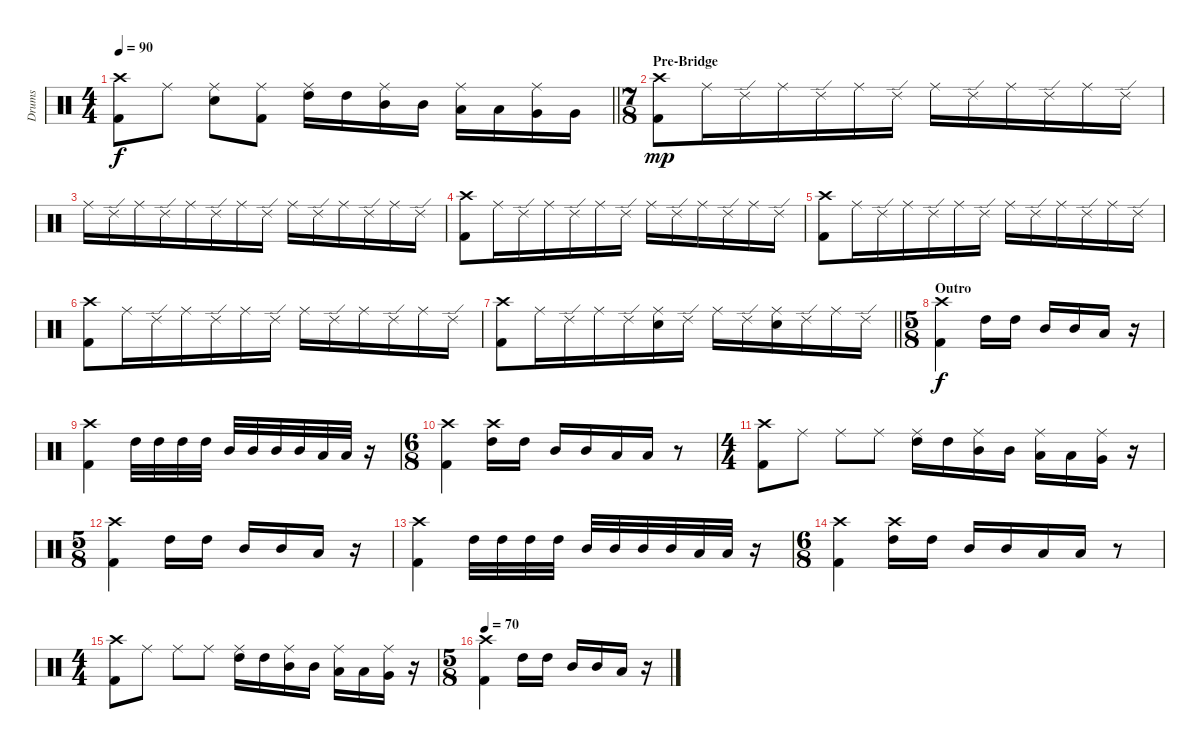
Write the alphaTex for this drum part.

\track ("Drums" "Drums") {instrument percussion}
\staff {score}
\articulation defaults
\ts (4 4)
\tempo 90
\clef neutral
\barLineRight lightlight
\ks c
("Crash high (hit)" "Kick (hit) 2").8{dy f} "Ride (middle)".8 ("Ride (middle)" "Electric Snare (hit)").8 ("Ride (middle)" "Kick (hit) 2").8 ("Ride (middle)" "High Tom (hit)").16 "High Tom (hit)".16 ("Ride (middle)" "Mid Tom (hit)").16 "Mid Tom (hit)".16 ("Ride (middle)" "Low Tom (hit)").16 "Low Tom (hit)".16 ("Ride (middle)" "Very Low Tom (hit)").16 "Very Low Tom (hit)".16 |
\ts (7 8)
\section ("" "Pre-Bridge")
("Crash high (hit)" "Kick (hit) 2").8{dy mp} "Ride (middle)".16 "Ride (edge) 2".16 "Ride (middle)".16 "Ride (edge) 2".16 "Ride (middle)".16 "Ride (edge) 2".16 "Ride (middle)".16 "Ride (edge) 2".16 "Ride (middle)".16 "Ride (edge) 2".16 "Ride (middle)".16 "Ride (edge) 2".16 |
"Ride (middle)".16 "Ride (edge) 2".16 "Ride (middle)".16 "Ride (edge) 2".16 "Ride (middle)".16 "Ride (edge) 2".16 "Ride (middle)".16 "Ride (edge) 2".16 "Ride (middle)".16 "Ride (edge) 2".16 "Ride (middle)".16 "Ride (edge) 2".16 "Ride (middle)".16 "Ride (edge) 2".16 |
("Crash high (hit)" "Kick (hit) 2").8 "Ride (middle)".16 "Ride (edge) 2".16 "Ride (middle)".16 "Ride (edge) 2".16 "Ride (middle)".16 "Ride (edge) 2".16 "Ride (middle)".16 "Ride (edge) 2".16 "Ride (middle)".16 "Ride (edge) 2".16 "Ride (middle)".16 "Ride (edge) 2".16 |
("Crash high (hit)" "Kick (hit) 2").8 "Ride (middle)".16 "Ride (edge) 2".16 "Ride (middle)".16 "Ride (edge) 2".16 "Ride (middle)".16 "Ride (edge) 2".16 "Ride (middle)".16 "Ride (edge) 2".16 "Ride (middle)".16 "Ride (edge) 2".16 "Ride (middle)".16 "Ride (edge) 2".16 |
("Crash high (hit)" "Kick (hit) 2").8 "Ride (middle)".16 "Ride (edge) 2".16 "Ride (middle)".16 "Ride (edge) 2".16 "Ride (middle)".16 "Ride (edge) 2".16 "Ride (middle)".16 "Ride (edge) 2".16 "Ride (middle)".16 "Ride (edge) 2".16 "Ride (middle)".16 "Ride (edge) 2".16 |
\barLineRight lightlight
("Crash high (hit)" "Kick (hit) 2").8 "Ride (middle)".16 "Ride (edge) 2".16 "Ride (middle)".16 "Ride (edge) 2".16 ("Ride (middle)" "Electric Snare (hit)").16 "Ride (edge) 2".16 "Ride (middle)".16 "Ride (edge) 2".16 ("Ride (middle)" "Electric Snare (hit)").16 "Ride (edge) 2".16 "Ride (middle)".16 "Ride (edge) 2".16 |
\ts (5 8)
\section ("" "Outro")
("Crash high (hit)" "Kick (hit) 2").4{dy f} "High Tom (hit)".16 "High Tom (hit)".16 "Mid Tom (hit)".16 "Mid Tom (hit)".16 "Low Tom (hit)".16 r.16 |
("Crash high (hit)" "Kick (hit) 2").4 "High Tom (hit)".32 "High Tom (hit)".32 "High Tom (hit)".32 "High Tom (hit)".32 "Mid Tom (hit)".32 "Mid Tom (hit)".32 "Mid Tom (hit)".32 "Mid Tom (hit)".32 "Low Tom (hit)".32 "Low Tom (hit)".32 r.16 |
\ts (6 8)
("Crash high (hit)" "Kick (hit) 2").4 ("Crash high (hit)" "High Tom (hit)").16 "High Tom (hit)".16 "Mid Tom (hit)".16 "Mid Tom (hit)".16 "Low Tom (hit)".16 "Low Tom (hit)".16 r.8 |
\ts (4 4)
("Crash high (hit)" "Kick (hit) 2").8 "Ride (middle)".8 "Ride (middle)".8 "Ride (middle)".8 ("Ride (middle)" "High Tom (hit)").16 "High Tom (hit)".16 ("Ride (middle)" "Mid Tom (hit)").16 "Mid Tom (hit)".16 ("Ride (middle)" "Low Tom (hit)").16 "Low Tom (hit)".16 ("Ride (middle)" "Very Low Tom (hit)").16 r.16 |
\ts (5 8)
("Crash high (hit)" "Kick (hit) 2").4 "High Tom (hit)".16 "High Tom (hit)".16 "Mid Tom (hit)".16 "Mid Tom (hit)".16 "Low Tom (hit)".16 r.16 |
("Crash high (hit)" "Kick (hit) 2").4 "High Tom (hit)".32 "High Tom (hit)".32 "High Tom (hit)".32 "High Tom (hit)".32 "Mid Tom (hit)".32 "Mid Tom (hit)".32 "Mid Tom (hit)".32 "Mid Tom (hit)".32 "Low Tom (hit)".32 "Low Tom (hit)".32 r.16 |
\ts (6 8)
("Crash high (hit)" "Kick (hit) 2").4 ("Crash high (hit)" "High Tom (hit)").16 "High Tom (hit)".16 "Mid Tom (hit)".16 "Mid Tom (hit)".16 "Low Tom (hit)".16 "Low Tom (hit)".16 r.8 |
\ts (4 4)
("Crash high (hit)" "Kick (hit) 2").8 "Ride (middle)".8 "Ride (middle)".8 "Ride (middle)".8 ("Ride (middle)" "High Tom (hit)").16 "High Tom (hit)".16 ("Ride (middle)" "Mid Tom (hit)").16 "Mid Tom (hit)".16 ("Ride (middle)" "Low Tom (hit)").16 "Low Tom (hit)".16 ("Ride (middle)" "Very Low Tom (hit)").16 r.16 |
\ts (5 8)
\tempo 70
("Crash high (hit)" "Kick (hit) 2").4 "High Tom (hit)".16 "High Tom (hit)".16 "Mid Tom (hit)".16 "Mid Tom (hit)".16 "Low Tom (hit)".16 r.16
